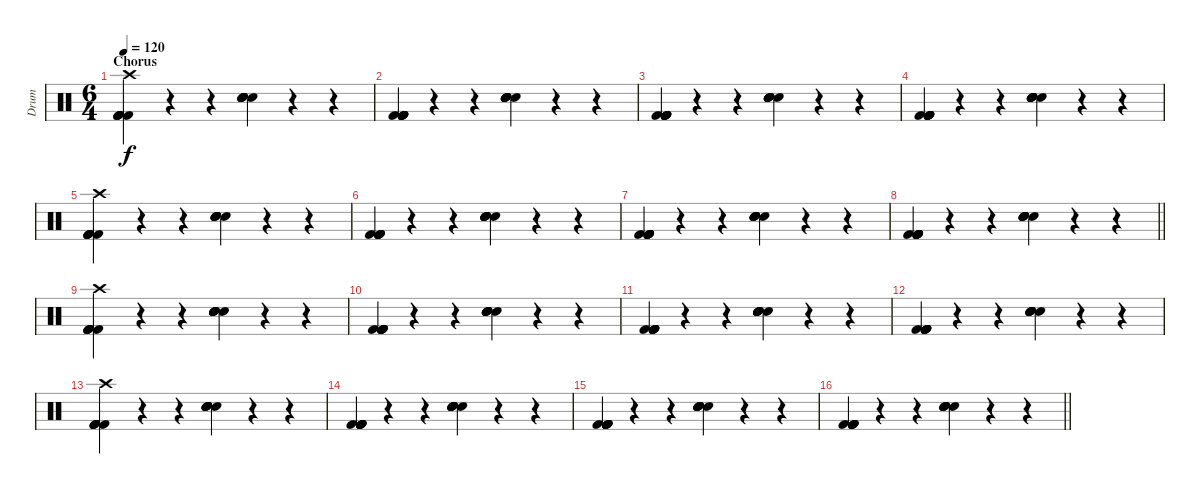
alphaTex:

\track ("Drum" "Drum") {instrument percussion}
\staff {score}
\articulation defaults
\ts (6 4)
\section ("" "Chorus")
\tempo 120
\clef neutral
\ks c
("Kick (hit) 2" "Kick (hit) 2" "Kick (hit) 2" "Kick (hit) 2" "Kick (hit) 2" "Crash high (hit)").4{dy f} r.4 r.4 ("Electric Snare (hit)" "Electric Snare (hit)" "Electric Snare (hit)" "Electric Snare (hit)" "Electric Snare (hit)" "Electric Snare (hit)").4 r.4 r.4 |
("Kick (hit) 2" "Kick (hit) 2" "Kick (hit) 2" "Kick (hit) 2" "Kick (hit) 2" "Kick (hit) 2").4 r.4 r.4 ("Electric Snare (hit)" "Electric Snare (hit)" "Electric Snare (hit)" "Electric Snare (hit)" "Electric Snare (hit)" "Electric Snare (hit)").4 r.4 r.4 |
("Kick (hit) 2" "Kick (hit) 2" "Kick (hit) 2" "Kick (hit) 2" "Kick (hit) 2" "Kick (hit) 2").4 r.4 r.4 ("Electric Snare (hit)" "Electric Snare (hit)" "Electric Snare (hit)" "Electric Snare (hit)" "Electric Snare (hit)" "Electric Snare (hit)").4 r.4 r.4 |
("Kick (hit) 2" "Kick (hit) 2" "Kick (hit) 2" "Kick (hit) 2" "Kick (hit) 2" "Kick (hit) 2").4 r.4 r.4 ("Electric Snare (hit)" "Electric Snare (hit)" "Electric Snare (hit)" "Electric Snare (hit)" "Electric Snare (hit)" "Electric Snare (hit)").4 r.4 r.4 |
("Kick (hit) 2" "Kick (hit) 2" "Kick (hit) 2" "Kick (hit) 2" "Kick (hit) 2" "Crash high (hit)").4 r.4 r.4 ("Electric Snare (hit)" "Electric Snare (hit)" "Electric Snare (hit)" "Electric Snare (hit)" "Electric Snare (hit)" "Electric Snare (hit)").4 r.4 r.4 |
("Kick (hit) 2" "Kick (hit) 2" "Kick (hit) 2" "Kick (hit) 2" "Kick (hit) 2" "Kick (hit) 2").4 r.4 r.4 ("Electric Snare (hit)" "Electric Snare (hit)" "Electric Snare (hit)" "Electric Snare (hit)" "Electric Snare (hit)" "Electric Snare (hit)").4 r.4 r.4 |
("Kick (hit) 2" "Kick (hit) 2" "Kick (hit) 2" "Kick (hit) 2" "Kick (hit) 2" "Kick (hit) 2").4 r.4 r.4 ("Electric Snare (hit)" "Electric Snare (hit)" "Electric Snare (hit)" "Electric Snare (hit)" "Electric Snare (hit)" "Electric Snare (hit)").4 r.4 r.4 |
\barLineRight lightlight
("Kick (hit) 2" "Kick (hit) 2" "Kick (hit) 2" "Kick (hit) 2" "Kick (hit) 2" "Kick (hit) 2").4 r.4 r.4 ("Electric Snare (hit)" "Electric Snare (hit)" "Electric Snare (hit)" "Electric Snare (hit)" "Electric Snare (hit)" "Electric Snare (hit)").4 r.4 r.4 |
("Kick (hit) 2" "Kick (hit) 2" "Kick (hit) 2" "Kick (hit) 2" "Kick (hit) 2" "Crash high (hit)").4 r.4 r.4 ("Electric Snare (hit)" "Electric Snare (hit)" "Electric Snare (hit)" "Electric Snare (hit)" "Electric Snare (hit)" "Electric Snare (hit)").4 r.4 r.4 |
("Kick (hit) 2" "Kick (hit) 2" "Kick (hit) 2" "Kick (hit) 2" "Kick (hit) 2" "Kick (hit) 2").4 r.4 r.4 ("Electric Snare (hit)" "Electric Snare (hit)" "Electric Snare (hit)" "Electric Snare (hit)" "Electric Snare (hit)" "Electric Snare (hit)").4 r.4 r.4 |
("Kick (hit) 2" "Kick (hit) 2" "Kick (hit) 2" "Kick (hit) 2" "Kick (hit) 2" "Kick (hit) 2").4 r.4 r.4 ("Electric Snare (hit)" "Electric Snare (hit)" "Electric Snare (hit)" "Electric Snare (hit)" "Electric Snare (hit)" "Electric Snare (hit)").4 r.4 r.4 |
("Kick (hit) 2" "Kick (hit) 2" "Kick (hit) 2" "Kick (hit) 2" "Kick (hit) 2" "Kick (hit) 2").4 r.4 r.4 ("Electric Snare (hit)" "Electric Snare (hit)" "Electric Snare (hit)" "Electric Snare (hit)" "Electric Snare (hit)" "Electric Snare (hit)").4 r.4 r.4 |
("Kick (hit) 2" "Kick (hit) 2" "Kick (hit) 2" "Kick (hit) 2" "Kick (hit) 2" "Crash high (hit)").4 r.4 r.4 ("Electric Snare (hit)" "Electric Snare (hit)" "Electric Snare (hit)" "Electric Snare (hit)" "Electric Snare (hit)" "Electric Snare (hit)").4 r.4 r.4 |
("Kick (hit) 2" "Kick (hit) 2" "Kick (hit) 2" "Kick (hit) 2" "Kick (hit) 2" "Kick (hit) 2").4 r.4 r.4 ("Electric Snare (hit)" "Electric Snare (hit)" "Electric Snare (hit)" "Electric Snare (hit)" "Electric Snare (hit)" "Electric Snare (hit)").4 r.4 r.4 |
("Kick (hit) 2" "Kick (hit) 2" "Kick (hit) 2" "Kick (hit) 2" "Kick (hit) 2" "Kick (hit) 2").4 r.4 r.4 ("Electric Snare (hit)" "Electric Snare (hit)" "Electric Snare (hit)" "Electric Snare (hit)" "Electric Snare (hit)" "Electric Snare (hit)").4 r.4 r.4 |
\barLineRight lightlight
("Kick (hit) 2" "Kick (hit) 2" "Kick (hit) 2" "Kick (hit) 2" "Kick (hit) 2" "Kick (hit) 2").4 r.4 r.4 ("Electric Snare (hit)" "Electric Snare (hit)" "Electric Snare (hit)" "Electric Snare (hit)" "Electric Snare (hit)" "Electric Snare (hit)").4 r.4 r.4
